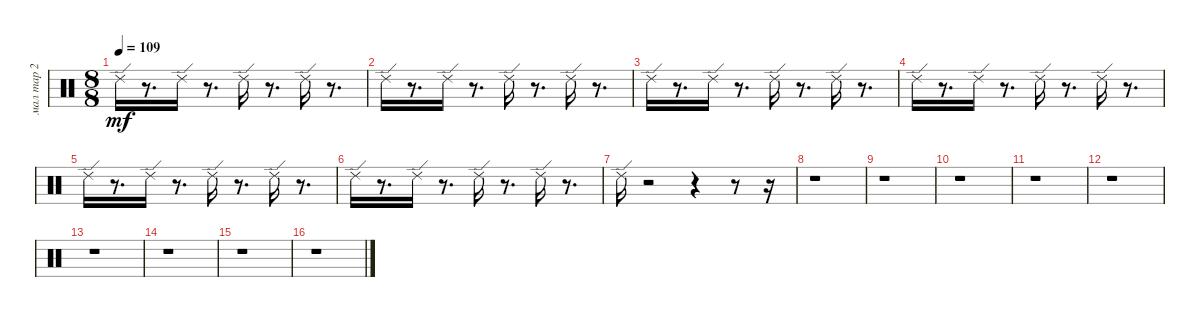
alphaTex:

\track ("мал тар 2" "мал тар 2") {instrument percussion}
\staff {score}
\articulation defaults
\ts (8 8)
\tempo 109
\clef neutral
\ks c "Ride (edge) 2".16{dy mf}
r.8{d} "Ride (edge) 2".16 r.8{d} "Ride (edge) 2".16 r.8{d} "Ride (edge) 2".16 r.8{d} |
"Ride (edge) 2".16 r.8{d} "Ride (edge) 2".16 r.8{d} "Ride (edge) 2".16 r.8{d} "Ride (edge) 2".16 r.8{d} |
"Ride (edge) 2".16 r.8{d} "Ride (edge) 2".16 r.8{d} "Ride (edge) 2".16 r.8{d} "Ride (edge) 2".16 r.8{d} |
"Ride (edge) 2".16 r.8{d} "Ride (edge) 2".16 r.8{d} "Ride (edge) 2".16 r.8{d} "Ride (edge) 2".16 r.8{d} |
"Ride (edge) 2".16 r.8{d} "Ride (edge) 2".16 r.8{d} "Ride (edge) 2".16 r.8{d} "Ride (edge) 2".16 r.8{d} |
"Ride (edge) 2".16 r.8{d} "Ride (edge) 2".16 r.8{d} "Ride (edge) 2".16 r.8{d} "Ride (edge) 2".16 r.8{d} |
"Ride (edge) 2".16 r.2 r.4 r.8 r.16 |
r.1 |
r.1 |
r.1 |
r.1 |
r.1 |
r.1 |
r.1 |
r.1 |
r.1
